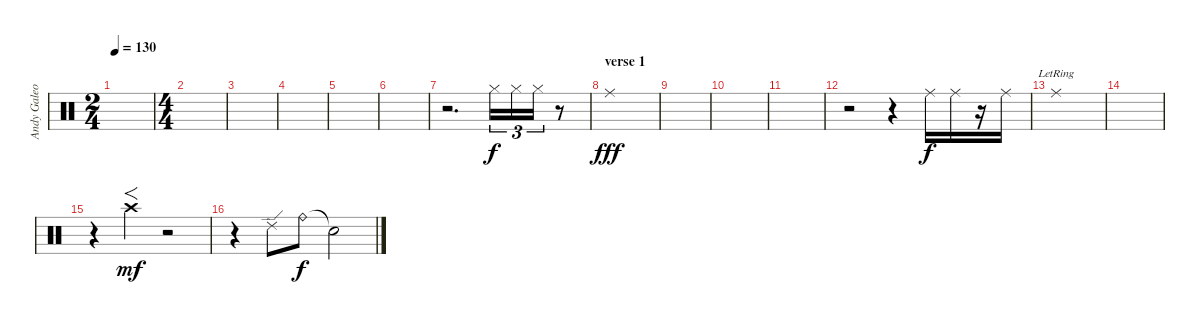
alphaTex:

\track ("Andy Galeon" "Andy Galeo") {instrument percussion}
\staff {score}
\articulation defaults
\ts (2 4)
\tempo 130
\clef neutral
\ks c
|
\ts (4 4)
|
|
|
|
|
r.2{d} "Hi-Hat (closed)".16{tu (3 2)} "Hi-Hat (closed)".16{tu (3 2)} "Hi-Hat (closed)".16{tu (3 2)} r.8 |
\section ("" "verse 1")
"Ride (middle)".1{dy fff} |
|
|
|
r.2 r.4 "Ride (middle)".16{dy f} "Ride (middle)".16 r.16 "Ride (middle)".16 |
"Ride (middle)"{lr}.1 |
|
r.4 "Crash high (hit)".4{f dy mf} r.2 |
r.4 "Ride (edge) 2".8 "Ride (bell)".8{dy f} "Snare (hit)"{t}.2
